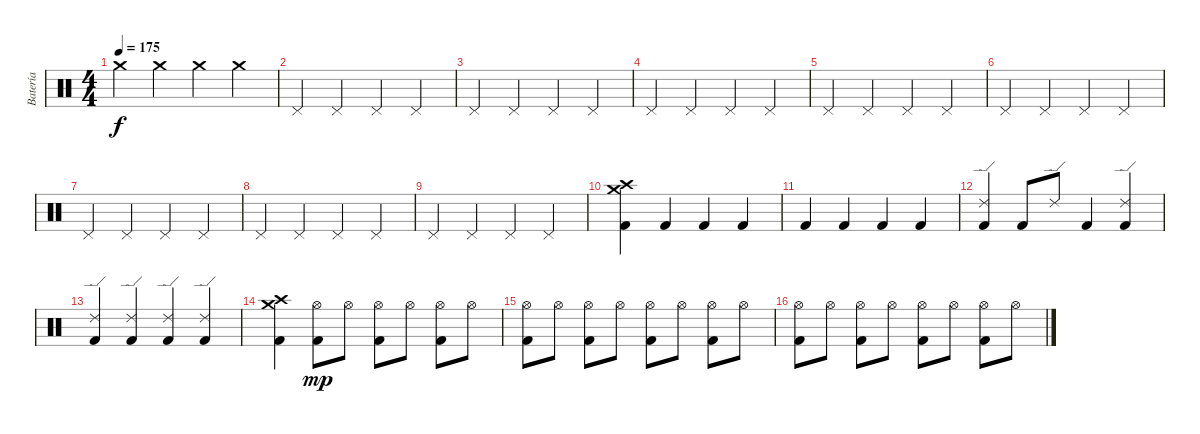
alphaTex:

\track ("Batería" "Batería") {instrument percussion}
\staff {score}
\articulation defaults
\ts (4 4)
\tempo 175
\clef neutral
\ks c "Crash medium (hit)".4{dy f} "Crash medium (hit)".4 "Crash medium (hit)".4 "Crash medium (hit)".4
|
"Pedal Hi-Hat (hit)".4 "Pedal Hi-Hat (hit)".4 "Pedal Hi-Hat (hit)".4 "Pedal Hi-Hat (hit)".4 |
"Pedal Hi-Hat (hit)".4 "Pedal Hi-Hat (hit)".4 "Pedal Hi-Hat (hit)".4 "Pedal Hi-Hat (hit)".4 |
"Pedal Hi-Hat (hit)".4 "Pedal Hi-Hat (hit)".4 "Pedal Hi-Hat (hit)".4 "Pedal Hi-Hat (hit)".4 |
"Pedal Hi-Hat (hit)".4 "Pedal Hi-Hat (hit)".4 "Pedal Hi-Hat (hit)".4 "Pedal Hi-Hat (hit)".4 |
"Pedal Hi-Hat (hit)".4 "Pedal Hi-Hat (hit)".4 "Pedal Hi-Hat (hit)".4 "Pedal Hi-Hat (hit)".4 |
"Pedal Hi-Hat (hit)".4 "Pedal Hi-Hat (hit)".4 "Pedal Hi-Hat (hit)".4 "Pedal Hi-Hat (hit)".4 |
"Pedal Hi-Hat (hit)".4 "Pedal Hi-Hat (hit)".4 "Pedal Hi-Hat (hit)".4 "Pedal Hi-Hat (hit)".4 |
"Pedal Hi-Hat (hit)".4 "Pedal Hi-Hat (hit)".4 "Pedal Hi-Hat (hit)".4 "Pedal Hi-Hat (hit)".4 |
("Crash high (hit)" "Crash medium (hit)" "Kick (hit) 2").4 "Kick (hit) 2".4 "Kick (hit) 2".4 "Kick (hit) 2".4 |
"Kick (hit) 2".4 "Kick (hit) 2".4 "Kick (hit) 2".4 "Kick (hit) 2".4 |
("Ride (edge) 2" "Kick (hit) 2").4 "Kick (hit) 2".8 "Ride (edge) 2".8 "Kick (hit) 2".4 ("Ride (edge) 2" "Kick (hit) 2").4 |
("Ride (edge) 2" "Kick (hit) 2").4 ("Ride (edge) 2" "Kick (hit) 2").4 ("Ride (edge) 2" "Kick (hit) 2").4 ("Ride (edge) 2" "Kick (hit) 2").4 |
("Crash high (hit)" "Crash medium (hit)" "Kick (hit) 2").4 ("Hi-Hat (open)" "Kick (hit) 2").8{dy mp} "Hi-Hat (open)".8 ("Hi-Hat (open)" "Kick (hit) 2").8 "Hi-Hat (open)".8 ("Hi-Hat (open)" "Kick (hit) 2").8 "Hi-Hat (open)".8 |
("Hi-Hat (open)" "Kick (hit) 2").8 "Hi-Hat (open)".8 ("Hi-Hat (open)" "Kick (hit) 2").8 "Hi-Hat (open)".8 ("Hi-Hat (open)" "Kick (hit) 2").8 "Hi-Hat (open)".8 ("Hi-Hat (open)" "Kick (hit) 2").8 "Hi-Hat (open)".8 |
("Hi-Hat (open)" "Kick (hit) 2").8 "Hi-Hat (open)".8 ("Hi-Hat (open)" "Kick (hit) 2").8 "Hi-Hat (open)".8 ("Hi-Hat (open)" "Kick (hit) 2").8 "Hi-Hat (open)".8 ("Hi-Hat (open)" "Kick (hit) 2").8 "Hi-Hat (open)".8
